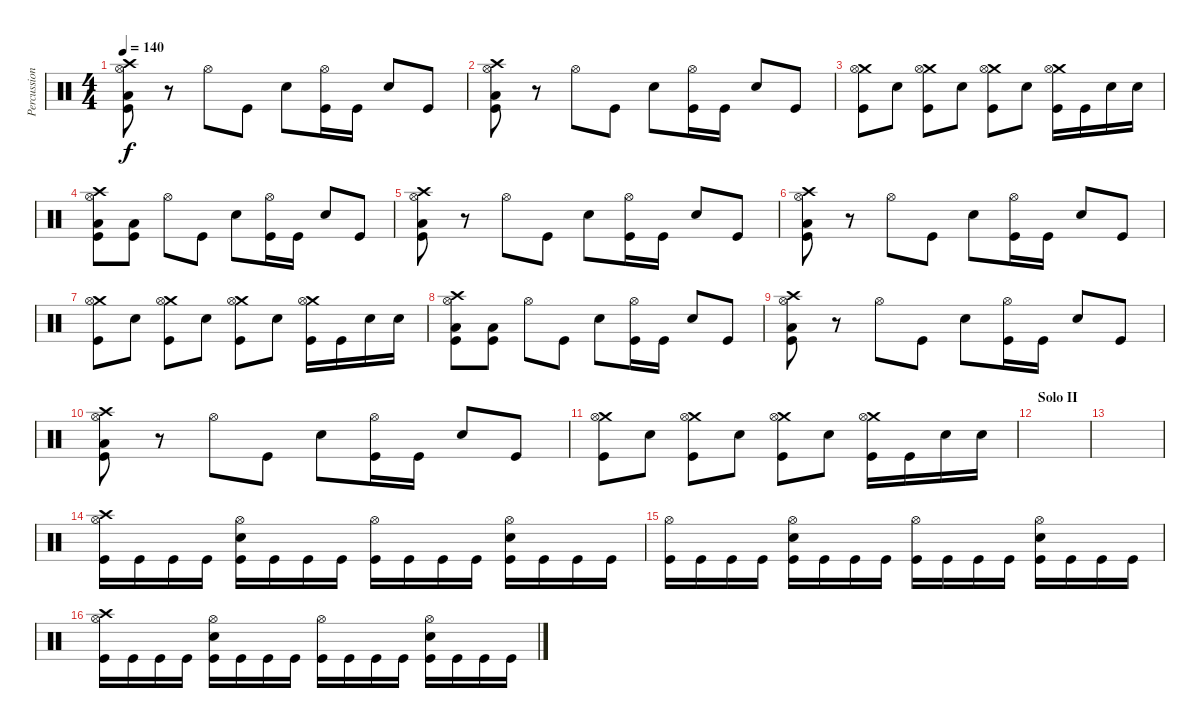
\track ("Percussion" "Percussion") {instrument percussion}
\staff {score}
\articulation defaults
\ts (4 4)
\tempo 140
\clef neutral
\ks c
("Crash high (hit)" "Hi-Hat (open)" "Low Floor Tom (hit)" "Kick (hit)").8{dy f} r.8 "Hi-Hat (open)".8 "Kick (hit)".8 "Electric Snare (hit)".8 ("Hi-Hat (open)" "Kick (hit)").16 "Kick (hit)".16 "Electric Snare (hit)".8 "Kick (hit)".8 |
("Crash high (hit)" "Hi-Hat (open)" "Low Floor Tom (hit)" "Kick (hit)").8 r.8 "Hi-Hat (open)".8 "Kick (hit)".8 "Electric Snare (hit)".8 ("Hi-Hat (open)" "Kick (hit)").16 "Kick (hit)".16 "Electric Snare (hit)".8 "Kick (hit)".8 |
("Crash medium (hit)" "Hi-Hat (open)" "Kick (hit)").8 "Electric Snare (hit)".8 ("Crash medium (hit)" "Hi-Hat (open)" "Kick (hit)").8 "Electric Snare (hit)".8 ("Crash medium (hit)" "Hi-Hat (open)" "Kick (hit)").8 "Electric Snare (hit)".8 ("Crash medium (hit)" "Hi-Hat (open)" "Kick (hit)").16 "Kick (hit)".16 "Electric Snare (hit)".16 "Electric Snare (hit)".16 |
("Crash high (hit)" "Hi-Hat (open)" "Low Floor Tom (hit)" "Kick (hit)").8 ("Low Floor Tom (hit)" "Kick (hit)").8 "Hi-Hat (open)".8 "Kick (hit)".8 "Electric Snare (hit)".8 ("Hi-Hat (open)" "Kick (hit)").16 "Kick (hit)".16 "Electric Snare (hit)".8 "Kick (hit)".8 |
("Crash high (hit)" "Hi-Hat (open)" "Low Floor Tom (hit)" "Kick (hit)").8 r.8 "Hi-Hat (open)".8 "Kick (hit)".8 "Electric Snare (hit)".8 ("Hi-Hat (open)" "Kick (hit)").16 "Kick (hit)".16 "Electric Snare (hit)".8 "Kick (hit)".8 |
("Crash high (hit)" "Hi-Hat (open)" "Low Floor Tom (hit)" "Kick (hit)").8 r.8 "Hi-Hat (open)".8 "Kick (hit)".8 "Electric Snare (hit)".8 ("Hi-Hat (open)" "Kick (hit)").16 "Kick (hit)".16 "Electric Snare (hit)".8 "Kick (hit)".8 |
("Crash medium (hit)" "Hi-Hat (open)" "Kick (hit)").8 "Electric Snare (hit)".8 ("Crash medium (hit)" "Hi-Hat (open)" "Kick (hit)").8 "Electric Snare (hit)".8 ("Crash medium (hit)" "Hi-Hat (open)" "Kick (hit)").8 "Electric Snare (hit)".8 ("Crash medium (hit)" "Hi-Hat (open)" "Kick (hit)").16 "Kick (hit)".16 "Electric Snare (hit)".16 "Electric Snare (hit)".16 |
("Crash high (hit)" "Hi-Hat (open)" "Low Floor Tom (hit)" "Kick (hit)").8 ("Low Floor Tom (hit)" "Kick (hit)").8 "Hi-Hat (open)".8 "Kick (hit)".8 "Electric Snare (hit)".8 ("Hi-Hat (open)" "Kick (hit)").16 "Kick (hit)".16 "Electric Snare (hit)".8 "Kick (hit)".8 |
("Crash high (hit)" "Hi-Hat (open)" "Low Floor Tom (hit)" "Kick (hit)").8 r.8 "Hi-Hat (open)".8 "Kick (hit)".8 "Electric Snare (hit)".8 ("Hi-Hat (open)" "Kick (hit)").16 "Kick (hit)".16 "Electric Snare (hit)".8 "Kick (hit)".8 |
("Crash high (hit)" "Hi-Hat (open)" "Low Floor Tom (hit)" "Kick (hit)").8 r.8 "Hi-Hat (open)".8 "Kick (hit)".8 "Electric Snare (hit)".8 ("Hi-Hat (open)" "Kick (hit)").16 "Kick (hit)".16 "Electric Snare (hit)".8 "Kick (hit)".8 |
("Crash medium (hit)" "Hi-Hat (open)" "Kick (hit)").8 "Electric Snare (hit)".8 ("Crash medium (hit)" "Hi-Hat (open)" "Kick (hit)").8 "Electric Snare (hit)".8 ("Crash medium (hit)" "Hi-Hat (open)" "Kick (hit)").8 "Electric Snare (hit)".8 ("Crash medium (hit)" "Hi-Hat (open)" "Kick (hit)").16 "Kick (hit)".16 "Electric Snare (hit)".16 "Electric Snare (hit)".16 |
\section ("" "Solo II")
|
|
("Crash high (hit)" "Hi-Hat (open)" "Kick (hit)").16 "Kick (hit)".16 "Kick (hit)".16 "Kick (hit)".16 ("Hi-Hat (open)" "Electric Snare (hit)" "Kick (hit)").16 "Kick (hit)".16 "Kick (hit)".16 "Kick (hit)".16 ("Hi-Hat (open)" "Kick (hit)").16 "Kick (hit)".16 "Kick (hit)".16 "Kick (hit)".16 ("Hi-Hat (open)" "Electric Snare (hit)" "Kick (hit)").16 "Kick (hit)".16 "Kick (hit)".16 "Kick (hit)".16 |
("Hi-Hat (open)" "Kick (hit)").16 "Kick (hit)".16 "Kick (hit)".16 "Kick (hit)".16 ("Hi-Hat (open)" "Electric Snare (hit)" "Kick (hit)").16 "Kick (hit)".16 "Kick (hit)".16 "Kick (hit)".16 ("Hi-Hat (open)" "Kick (hit)").16 "Kick (hit)".16 "Kick (hit)".16 "Kick (hit)".16 ("Hi-Hat (open)" "Electric Snare (hit)" "Kick (hit)").16 "Kick (hit)".16 "Kick (hit)".16 "Kick (hit)".16 |
("Crash high (hit)" "Hi-Hat (open)" "Kick (hit)").16 "Kick (hit)".16 "Kick (hit)".16 "Kick (hit)".16 ("Hi-Hat (open)" "Electric Snare (hit)" "Kick (hit)").16 "Kick (hit)".16 "Kick (hit)".16 "Kick (hit)".16 ("Hi-Hat (open)" "Kick (hit)").16 "Kick (hit)".16 "Kick (hit)".16 "Kick (hit)".16 ("Hi-Hat (open)" "Electric Snare (hit)" "Kick (hit)").16 "Kick (hit)".16 "Kick (hit)".16 "Kick (hit)".16
